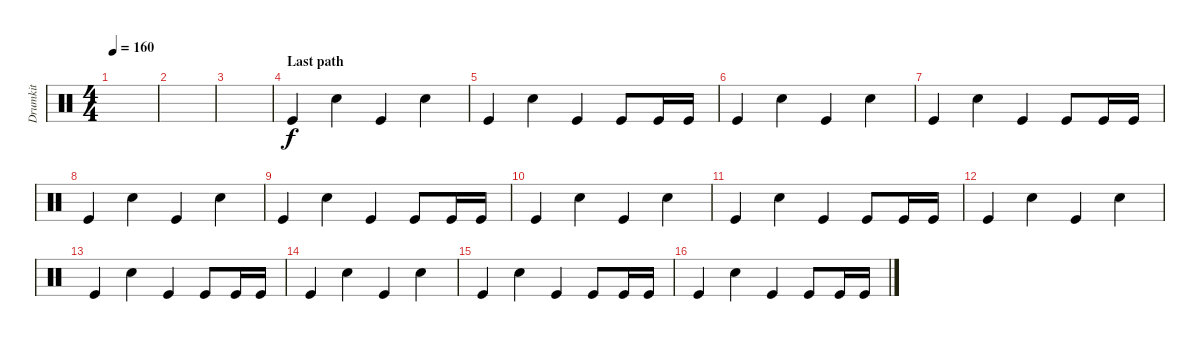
\track ("Drumkit" "Drumkit") {instrument percussion}
\staff {score}
\articulation defaults
\ts (4 4)
\tempo 160
\clef neutral
\ks c
|
|
|
\section ("" "Last path")
"Kick (hit)".4 "Hand Clap (hit)".4 "Kick (hit)".4 "Hand Clap (hit)".4 |
"Kick (hit)".4 "Hand Clap (hit)".4 "Kick (hit)".4 "Kick (hit)".8 "Kick (hit)".16 "Kick (hit)".16 |
"Kick (hit)".4 "Hand Clap (hit)".4 "Kick (hit)".4 "Hand Clap (hit)".4 |
"Kick (hit)".4 "Hand Clap (hit)".4 "Kick (hit)".4 "Kick (hit)".8 "Kick (hit)".16 "Kick (hit)".16 |
"Kick (hit)".4 "Hand Clap (hit)".4 "Kick (hit)".4 "Hand Clap (hit)".4 |
"Kick (hit)".4 "Hand Clap (hit)".4 "Kick (hit)".4 "Kick (hit)".8 "Kick (hit)".16 "Kick (hit)".16 |
"Kick (hit)".4 "Hand Clap (hit)".4 "Kick (hit)".4 "Hand Clap (hit)".4 |
"Kick (hit)".4 "Hand Clap (hit)".4 "Kick (hit)".4 "Kick (hit)".8 "Kick (hit)".16 "Kick (hit)".16 |
"Kick (hit)".4 "Hand Clap (hit)".4 "Kick (hit)".4 "Hand Clap (hit)".4 |
"Kick (hit)".4 "Hand Clap (hit)".4 "Kick (hit)".4 "Kick (hit)".8 "Kick (hit)".16 "Kick (hit)".16 |
"Kick (hit)".4 "Hand Clap (hit)".4 "Kick (hit)".4 "Hand Clap (hit)".4 |
"Kick (hit)".4 "Hand Clap (hit)".4 "Kick (hit)".4 "Kick (hit)".8 "Kick (hit)".16 "Kick (hit)".16 |
"Kick (hit)".4 "Hand Clap (hit)".4 "Kick (hit)".4 "Kick (hit)".8 "Kick (hit)".16 "Kick (hit)".16
